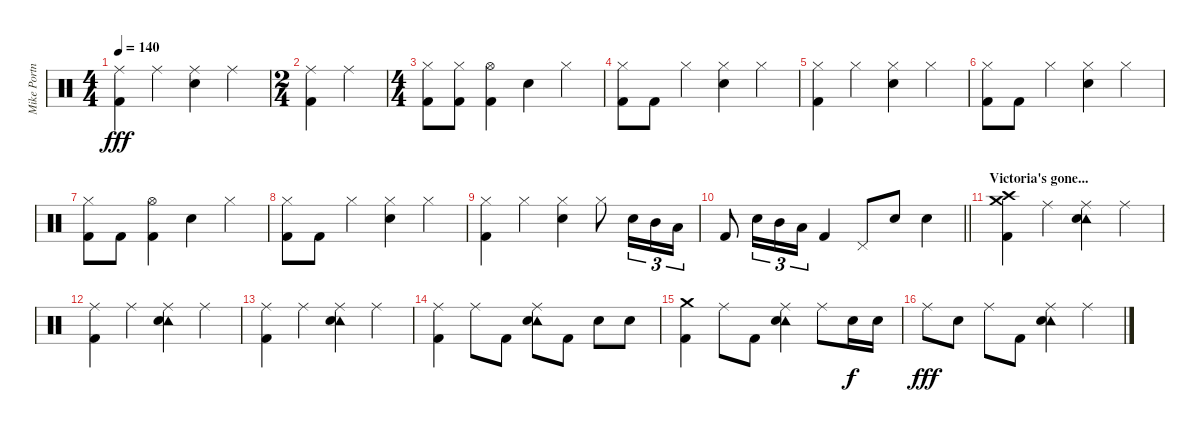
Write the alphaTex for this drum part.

\track ("Mike Portnoy" "Mike Portn") {instrument percussion}
\staff {score}
\articulation defaults
\ts (4 4)
\tempo 140
\clef neutral
\ks c
("Ride (middle)" "Kick (hit) 2").4{dy fff} "Ride (middle)".4 ("Ride (middle)" "Snare (hit) 2").4 "Ride (middle)".4 |
\ts (2 4)
("Ride (middle)" "Kick (hit) 2").4 "Ride (middle)".4 |
\ts (4 4)
("Hi-Hat (closed)" "Kick (hit) 2").8 ("Hi-Hat (closed)" "Kick (hit) 2").8 ("Hi-Hat (open)" "Kick (hit) 2").4 "Snare (hit) 2".4 "Hi-Hat (closed)".4 |
("Hi-Hat (closed)" "Kick (hit) 2").8 "Kick (hit) 2".8 "Hi-Hat (closed)".4 ("Hi-Hat (closed)" "Snare (hit) 2").4 "Hi-Hat (closed)".4 |
("Hi-Hat (closed)" "Kick (hit) 2").4 "Hi-Hat (closed)".4 ("Hi-Hat (closed)" "Snare (hit) 2").4 "Hi-Hat (closed)".4 |
("Hi-Hat (closed)" "Kick (hit) 2").8 "Kick (hit) 2".8 "Hi-Hat (closed)".4 ("Hi-Hat (closed)" "Snare (hit) 2").4 "Hi-Hat (closed)".4 |
("Hi-Hat (closed)" "Kick (hit) 2").8 "Kick (hit) 2".8 ("Hi-Hat (open)" "Kick (hit) 2").4 "Snare (hit) 2".4 "Hi-Hat (closed)".4 |
("Hi-Hat (closed)" "Kick (hit) 2").8 "Kick (hit) 2".8 "Hi-Hat (closed)".4 ("Hi-Hat (closed)" "Snare (hit) 2").4 "Hi-Hat (closed)".4 |
("Hi-Hat (closed)" "Kick (hit) 2").4 "Hi-Hat (closed)".4 ("Hi-Hat (closed)" "Snare (hit) 2").4 "Hi-Hat (closed)".8 "Snare (hit) 2".16{tu (3 2)} "Mid Tom (hit)".16{tu (3 2)} "Low Tom (hit)".16{tu (3 2)} |
\barLineRight lightlight "Kick (hit) 2".8 "Snare (hit) 2".16{tu (3 2)} "Mid Tom (hit)".16{tu (3 2)} "Low Tom (hit)".16{tu (3 2)} "Kick (hit) 2".4 "Pedal Hi-Hat (hit)".8 "Snare (hit) 2".8 "Snare (hit) 2".4
|
\section ("" "Victoria's gone...")
("Crash high (hit)" "Crash medium (hit)" "Kick (hit) 2").4 "Ride (middle)".4 ("Tambourine (hit)" "Ride (middle)" "Snare (hit) 2").4 "Ride (middle)".4 |
("Ride (middle)" "Kick (hit) 2").4 "Ride (middle)".4 ("Tambourine (hit)" "Ride (middle)" "Snare (hit) 2").4 "Ride (middle)".4 |
("Ride (middle)" "Kick (hit) 2").4 "Ride (middle)".4 ("Tambourine (hit)" "Ride (middle)" "Snare (hit) 2").4 "Ride (middle)".4 |
("Ride (middle)" "Kick (hit) 2").4 "Ride (middle)".8 "Kick (hit) 2".8 ("Tambourine (hit)" "Ride (middle)" "Snare (hit) 2").8 "Kick (hit) 2".8 "Snare (hit) 2".8 "Snare (hit) 2".8 |
("Crash medium (hit)" "Kick (hit) 2").4 "Ride (middle)".8 "Kick (hit) 2".8 ("Tambourine (hit)" "Ride (middle)" "Snare (hit) 2").4 "Ride (middle)".8 "Snare (hit) 2".16{dy f} "Snare (hit) 2".16 |
"Ride (middle)".8{dy fff} "Snare (hit) 2".8 "Ride (middle)".8 "Kick (hit) 2".8 ("Tambourine (hit)" "Ride (middle)" "Snare (hit) 2").4 "Ride (middle)".4
